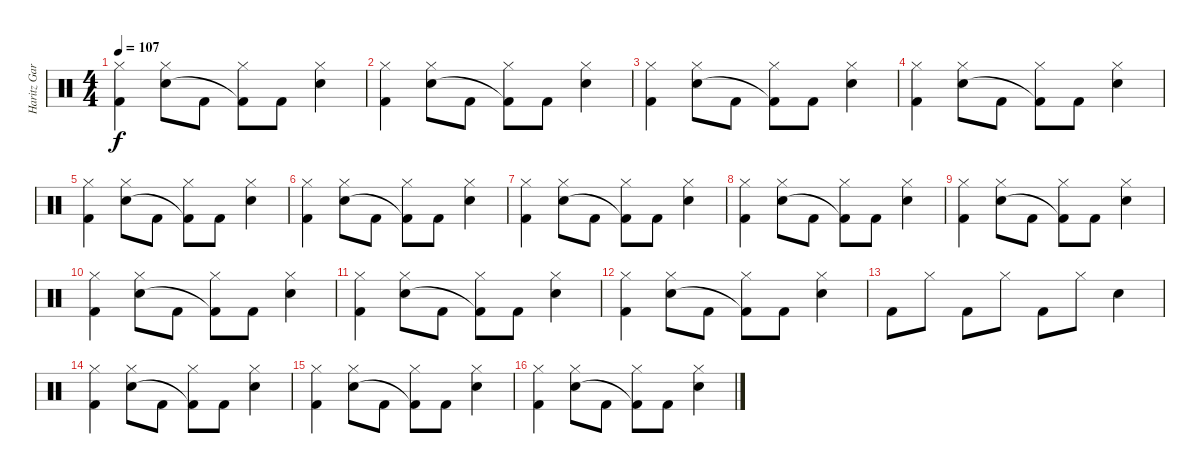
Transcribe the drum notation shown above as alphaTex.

\track ("Haritz Gardo" "Haritz Gar") {instrument percussion}
\staff {score}
\articulation defaults
\ts (4 4)
\tempo 107
\clef neutral
\ks c
("Hi-Hat (closed)" "Kick (hit) 2").4{dy f} ("Hi-Hat (closed)" "Electric Snare (hit)").8 "Kick (hit) 2".8 ("Hi-Hat (closed)" "Kick (hit) 2"{t}).8 "Kick (hit) 2".8 ("Hi-Hat (closed)" "Electric Snare (hit)").4 |
("Hi-Hat (closed)" "Kick (hit) 2").4 ("Hi-Hat (closed)" "Electric Snare (hit)").8 "Kick (hit) 2".8 ("Hi-Hat (closed)" "Kick (hit) 2"{t}).8 "Kick (hit) 2".8 ("Hi-Hat (closed)" "Electric Snare (hit)").4 |
("Hi-Hat (closed)" "Kick (hit) 2").4 ("Hi-Hat (closed)" "Electric Snare (hit)").8 "Kick (hit) 2".8 ("Hi-Hat (closed)" "Kick (hit) 2"{t}).8 "Kick (hit) 2".8 ("Hi-Hat (closed)" "Electric Snare (hit)").4 |
("Hi-Hat (closed)" "Kick (hit) 2").4 ("Hi-Hat (closed)" "Electric Snare (hit)").8 "Kick (hit) 2".8 ("Hi-Hat (closed)" "Kick (hit) 2"{t}).8 "Kick (hit) 2".8 ("Hi-Hat (closed)" "Electric Snare (hit)").4 |
("Hi-Hat (closed)" "Kick (hit) 2").4 ("Hi-Hat (closed)" "Electric Snare (hit)").8 "Kick (hit) 2".8 ("Hi-Hat (closed)" "Kick (hit) 2"{t}).8 "Kick (hit) 2".8 ("Hi-Hat (closed)" "Electric Snare (hit)").4 |
("Hi-Hat (closed)" "Kick (hit) 2").4 ("Hi-Hat (closed)" "Electric Snare (hit)").8 "Kick (hit) 2".8 ("Hi-Hat (closed)" "Kick (hit) 2"{t}).8 "Kick (hit) 2".8 ("Hi-Hat (closed)" "Electric Snare (hit)").4 |
("Hi-Hat (closed)" "Kick (hit) 2").4 ("Hi-Hat (closed)" "Electric Snare (hit)").8 "Kick (hit) 2".8 ("Hi-Hat (closed)" "Kick (hit) 2"{t}).8 "Kick (hit) 2".8 ("Hi-Hat (closed)" "Electric Snare (hit)").4 |
("Hi-Hat (closed)" "Kick (hit) 2").4 ("Hi-Hat (closed)" "Electric Snare (hit)").8 "Kick (hit) 2".8 ("Hi-Hat (closed)" "Kick (hit) 2"{t}).8 "Kick (hit) 2".8 ("Hi-Hat (closed)" "Electric Snare (hit)").4 |
("Hi-Hat (closed)" "Kick (hit) 2").4 ("Hi-Hat (closed)" "Electric Snare (hit)").8 "Kick (hit) 2".8 ("Hi-Hat (closed)" "Kick (hit) 2"{t}).8 "Kick (hit) 2".8 ("Hi-Hat (closed)" "Electric Snare (hit)").4 |
("Hi-Hat (closed)" "Kick (hit) 2").4 ("Hi-Hat (closed)" "Electric Snare (hit)").8 "Kick (hit) 2".8 ("Hi-Hat (closed)" "Kick (hit) 2"{t}).8 "Kick (hit) 2".8 ("Hi-Hat (closed)" "Electric Snare (hit)").4 |
("Hi-Hat (closed)" "Kick (hit) 2").4 ("Hi-Hat (closed)" "Electric Snare (hit)").8 "Kick (hit) 2".8 ("Hi-Hat (closed)" "Kick (hit) 2"{t}).8 "Kick (hit) 2".8 ("Hi-Hat (closed)" "Electric Snare (hit)").4 |
("Hi-Hat (closed)" "Kick (hit) 2").4 ("Hi-Hat (closed)" "Electric Snare (hit)").8 "Kick (hit) 2".8 ("Hi-Hat (closed)" "Kick (hit) 2"{t}).8 "Kick (hit) 2".8 ("Hi-Hat (closed)" "Electric Snare (hit)").4 |
"Kick (hit) 2".8 "Hi-Hat (closed)".8 "Kick (hit) 2".8 "Hi-Hat (closed)".8 "Kick (hit) 2".8 "Hi-Hat (closed)".8 "Electric Snare (hit)".4 |
("Hi-Hat (closed)" "Kick (hit) 2").4 ("Hi-Hat (closed)" "Electric Snare (hit)").8 "Kick (hit) 2".8 ("Hi-Hat (closed)" "Kick (hit) 2"{t}).8 "Kick (hit) 2".8 ("Hi-Hat (closed)" "Electric Snare (hit)").4 |
("Hi-Hat (closed)" "Kick (hit) 2").4 ("Hi-Hat (closed)" "Electric Snare (hit)").8 "Kick (hit) 2".8 ("Hi-Hat (closed)" "Kick (hit) 2"{t}).8 "Kick (hit) 2".8 ("Hi-Hat (closed)" "Electric Snare (hit)").4 |
("Hi-Hat (closed)" "Kick (hit) 2").4 ("Hi-Hat (closed)" "Electric Snare (hit)").8 "Kick (hit) 2".8 ("Hi-Hat (closed)" "Kick (hit) 2"{t}).8 "Kick (hit) 2".8 ("Hi-Hat (closed)" "Electric Snare (hit)").4
